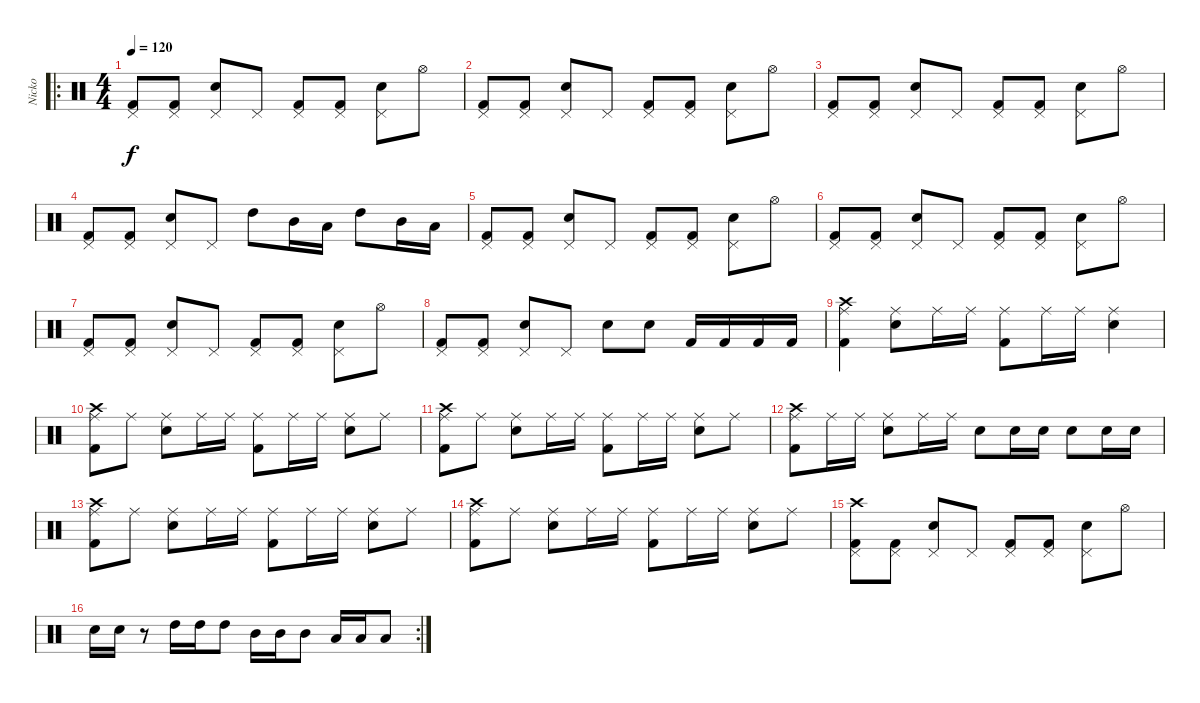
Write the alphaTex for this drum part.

\track ("Nicko" "Nicko") {instrument percussion}
\staff {score}
\articulation defaults
\ro
\ts (4 4)
\tempo 120
\clef neutral
\ks c
("Kick (hit) 2" "Pedal Hi-Hat (hit)").8{dy f} ("Kick (hit) 2" "Pedal Hi-Hat (hit)").8 ("Electric Snare (hit)" "Pedal Hi-Hat (hit)").8 "Pedal Hi-Hat (hit)".8 ("Kick (hit) 2" "Pedal Hi-Hat (hit)").8 ("Kick (hit) 2" "Pedal Hi-Hat (hit)").8 ("Electric Snare (hit)" "Pedal Hi-Hat (hit)").8 "Hi-Hat (open)".8 |
("Kick (hit) 2" "Pedal Hi-Hat (hit)").8 ("Kick (hit) 2" "Pedal Hi-Hat (hit)").8 ("Electric Snare (hit)" "Pedal Hi-Hat (hit)").8 "Pedal Hi-Hat (hit)".8 ("Kick (hit) 2" "Pedal Hi-Hat (hit)").8 ("Kick (hit) 2" "Pedal Hi-Hat (hit)").8 ("Electric Snare (hit)" "Pedal Hi-Hat (hit)").8 "Hi-Hat (open)".8 |
("Kick (hit) 2" "Pedal Hi-Hat (hit)").8 ("Kick (hit) 2" "Pedal Hi-Hat (hit)").8 ("Electric Snare (hit)" "Pedal Hi-Hat (hit)").8 "Pedal Hi-Hat (hit)".8 ("Kick (hit) 2" "Pedal Hi-Hat (hit)").8 ("Kick (hit) 2" "Pedal Hi-Hat (hit)").8 ("Electric Snare (hit)" "Pedal Hi-Hat (hit)").8 "Hi-Hat (open)".8 |
("Kick (hit) 2" "Pedal Hi-Hat (hit)").8 ("Kick (hit) 2" "Pedal Hi-Hat (hit)").8 ("Electric Snare (hit)" "Pedal Hi-Hat (hit)").8 "Pedal Hi-Hat (hit)".8 "High Tom (hit)".8 "Mid Tom (hit)".16 "Low Tom (hit)".16 "High Tom (hit)".8 "Mid Tom (hit)".16 "Low Tom (hit)".16 |
("Kick (hit) 2" "Pedal Hi-Hat (hit)").8 ("Kick (hit) 2" "Pedal Hi-Hat (hit)").8 ("Snare (hit) 2" "Pedal Hi-Hat (hit)").8 "Pedal Hi-Hat (hit)".8 ("Kick (hit) 2" "Pedal Hi-Hat (hit)").8 ("Kick (hit) 2" "Pedal Hi-Hat (hit)").8 ("Snare (hit) 2" "Pedal Hi-Hat (hit)").8 "Hi-Hat (open)".8 |
("Kick (hit) 2" "Pedal Hi-Hat (hit)").8 ("Kick (hit) 2" "Pedal Hi-Hat (hit)").8 ("Snare (hit) 2" "Pedal Hi-Hat (hit)").8 "Pedal Hi-Hat (hit)".8 ("Kick (hit) 2" "Pedal Hi-Hat (hit)").8 ("Kick (hit) 2" "Pedal Hi-Hat (hit)").8 ("Snare (hit) 2" "Pedal Hi-Hat (hit)").8 "Hi-Hat (open)".8 |
("Kick (hit) 2" "Pedal Hi-Hat (hit)").8 ("Kick (hit) 2" "Pedal Hi-Hat (hit)").8 ("Snare (hit) 2" "Pedal Hi-Hat (hit)").8 "Pedal Hi-Hat (hit)".8 ("Kick (hit) 2" "Pedal Hi-Hat (hit)").8 ("Kick (hit) 2" "Pedal Hi-Hat (hit)").8 ("Snare (hit) 2" "Pedal Hi-Hat (hit)").8 "Hi-Hat (open)".8 |
("Kick (hit) 2" "Pedal Hi-Hat (hit)").8 ("Kick (hit) 2" "Pedal Hi-Hat (hit)").8 ("Snare (hit) 2" "Pedal Hi-Hat (hit)").8 "Pedal Hi-Hat (hit)".8 "Snare (hit) 2".8 "Snare (hit) 2".8 "Kick (hit) 2".16 "Kick (hit) 2".16 "Kick (hit) 2".16 "Kick (hit) 2".16 |
("Kick (hit) 2" "Ride (middle)" "Crash high (hit)").4 ("Snare (hit) 2" "Ride (middle)").8 "Ride (middle)".16 "Ride (middle)".16 ("Kick (hit) 2" "Ride (middle)").8 "Ride (middle)".16 "Ride (middle)".16 ("Snare (hit) 2" "Ride (middle)").4 |
("Kick (hit) 2" "Ride (middle)" "Crash high (hit)").8 "Ride (middle)".8 ("Snare (hit) 2" "Ride (middle)").8 "Ride (middle)".16 "Ride (middle)".16 ("Kick (hit) 2" "Ride (middle)").8 "Ride (middle)".16 "Ride (middle)".16 ("Snare (hit) 2" "Ride (middle)").8 "Ride (middle)".8 |
("Kick (hit) 2" "Ride (middle)" "Crash high (hit)").8 "Ride (middle)".8 ("Snare (hit) 2" "Ride (middle)").8 "Ride (middle)".16 "Ride (middle)".16 ("Kick (hit) 2" "Ride (middle)").8 "Ride (middle)".16 "Ride (middle)".16 ("Snare (hit) 2" "Ride (middle)").8 "Ride (middle)".8 |
("Kick (hit) 2" "Ride (middle)" "Crash high (hit)").8 "Ride (middle)".16 "Ride (middle)".16 ("Snare (hit) 2" "Ride (middle)").8 "Ride (middle)".16 "Ride (middle)".16 "Snare (hit) 2".8 "Snare (hit) 2".16 "Snare (hit) 2".16 "Snare (hit) 2".8 "Snare (hit) 2".16 "Snare (hit) 2".16 |
("Kick (hit) 2" "Ride (middle)" "Crash high (hit)").8 "Ride (middle)".8 ("Snare (hit) 2" "Ride (middle)").8 "Ride (middle)".16 "Ride (middle)".16 ("Kick (hit) 2" "Ride (middle)").8 "Ride (middle)".16 "Ride (middle)".16 ("Snare (hit) 2" "Ride (middle)").8 "Ride (middle)".8 |
("Kick (hit) 2" "Ride (middle)" "Crash high (hit)").8 "Ride (middle)".8 ("Snare (hit) 2" "Ride (middle)").8 "Ride (middle)".16 "Ride (middle)".16 ("Kick (hit) 2" "Ride (middle)").8 "Ride (middle)".16 "Ride (middle)".16 ("Snare (hit) 2" "Ride (middle)").8 "Ride (middle)".8 |
("Kick (hit) 2" "Pedal Hi-Hat (hit)" "Crash high (hit)").8 ("Kick (hit) 2" "Pedal Hi-Hat (hit)").8 ("Snare (hit) 2" "Pedal Hi-Hat (hit)").8 "Pedal Hi-Hat (hit)".8 ("Kick (hit) 2" "Pedal Hi-Hat (hit)").8 ("Kick (hit) 2" "Pedal Hi-Hat (hit)").8 ("Snare (hit) 2" "Pedal Hi-Hat (hit)").8 "Hi-Hat (open)".8 |
\rc 2 "Snare (hit) 2".16 "Snare (hit) 2".16
r.8 "High Tom (hit)".16 "High Tom (hit)".16 "High Tom (hit)".8 "Mid Tom (hit)".16 "Mid Tom (hit)".16 "Mid Tom (hit)".8 "Low Tom (hit)".16 "Low Tom (hit)".16 "Low Tom (hit)".8
